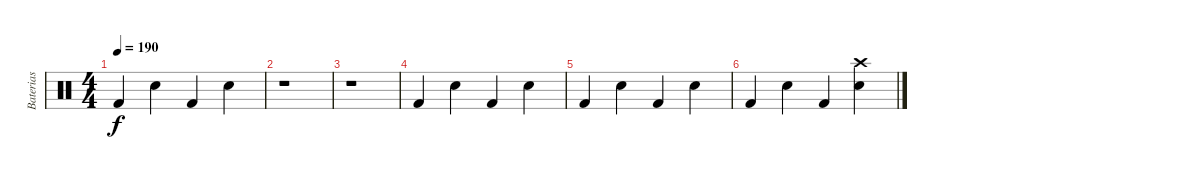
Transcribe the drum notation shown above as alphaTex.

\track ("Baterias" "Baterias") {instrument percussion}
\staff {score}
\articulation defaults
\ts (4 4)
\tempo 190
\clef neutral
\ks c "Kick (hit) 2".4{dy f} "Electric Snare (hit)".4 "Kick (hit) 2".4 "Electric Snare (hit)".4
|
r.1 |
r.1 |
"Kick (hit) 2".4 "Electric Snare (hit)".4 "Kick (hit) 2".4 "Electric Snare (hit)".4 |
"Kick (hit) 2".4 "Electric Snare (hit)".4 "Kick (hit) 2".4 "Electric Snare (hit)".4 |
"Kick (hit) 2".4 "Electric Snare (hit)".4 "Kick (hit) 2".4 ("Electric Snare (hit)" "Crash high (hit)").4
